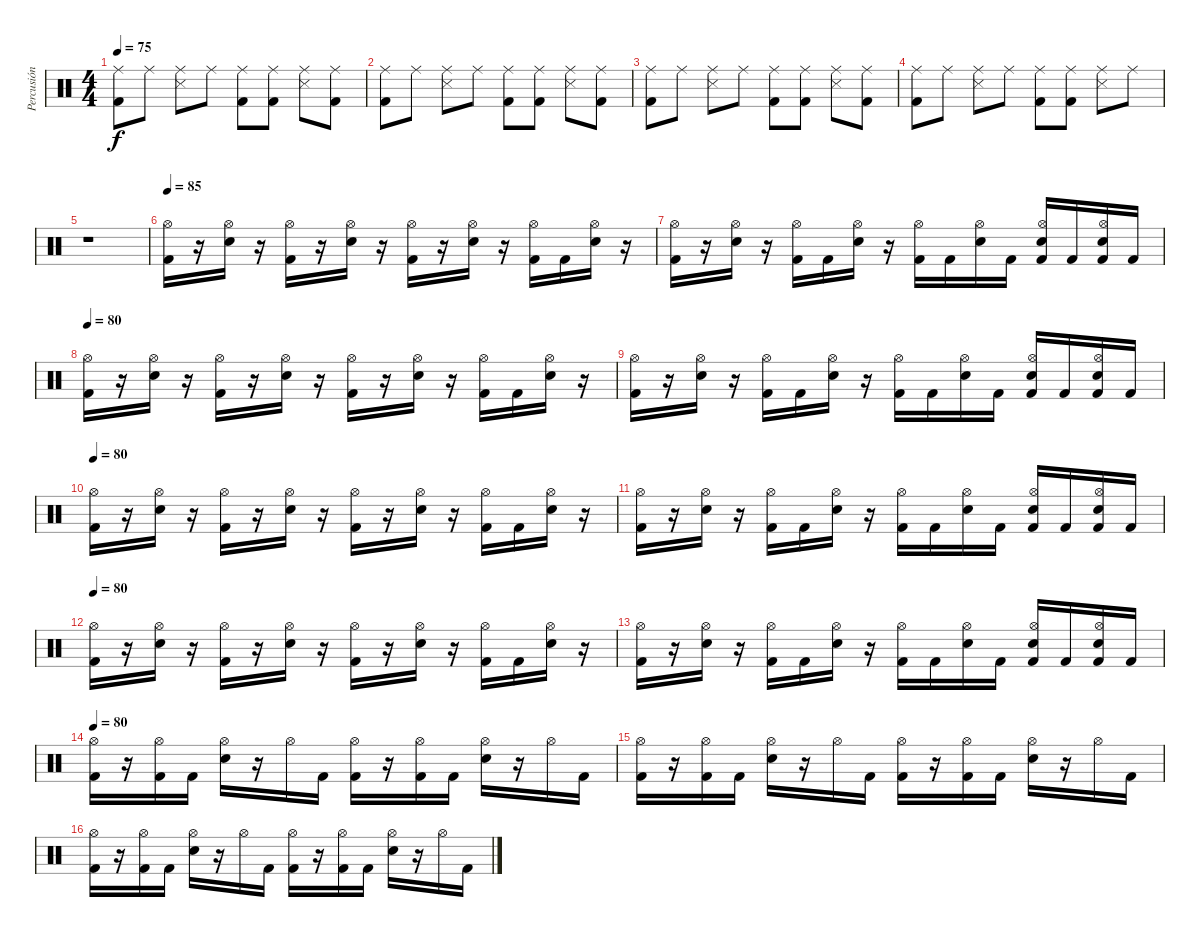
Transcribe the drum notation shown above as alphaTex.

\track ("Percusión" "Percusión") {instrument percussion}
\staff {score}
\articulation defaults
\ts (4 4)
\tempo 75
\clef neutral
\ks c
("Kick (hit) 2" "Ride (middle)").8{dy f} "Ride (middle)".8 ("Ride (middle)" "Snare (side stick) 3").8 "Ride (middle)".8 ("Kick (hit) 2" "Ride (middle)").8 ("Kick (hit) 2" "Ride (middle)").8 ("Ride (middle)" "Snare (side stick) 3").8 ("Kick (hit) 2" "Ride (middle)").8 |
("Kick (hit) 2" "Ride (middle)").8 "Ride (middle)".8 ("Ride (middle)" "Snare (side stick) 3").8 "Ride (middle)".8 ("Kick (hit) 2" "Ride (middle)").8 ("Kick (hit) 2" "Ride (middle)").8 ("Ride (middle)" "Snare (side stick) 3").8 ("Kick (hit) 2" "Ride (middle)").8 |
("Kick (hit) 2" "Ride (middle)").8 "Ride (middle)".8 ("Ride (middle)" "Snare (side stick) 3").8 "Ride (middle)".8 ("Kick (hit) 2" "Ride (middle)").8 ("Kick (hit) 2" "Ride (middle)").8 ("Ride (middle)" "Snare (side stick) 3").8 ("Kick (hit) 2" "Ride (middle)").8 |
("Kick (hit) 2" "Ride (middle)").8 "Ride (middle)".8 ("Ride (middle)" "Snare (side stick) 3").8 "Ride (middle)".8 ("Kick (hit) 2" "Ride (middle)").8 ("Kick (hit) 2" "Ride (middle)").8 ("Ride (middle)" "Snare (side stick) 3").8 "Ride (middle)".8 |
r.1 |
\tempo 85
("Kick (hit) 2" "Hi-Hat (open)").16{volume 16} r.16 ("Electric Snare (hit)" "Hi-Hat (open)").16 r.16 ("Kick (hit) 2" "Hi-Hat (open)").16 r.16 ("Electric Snare (hit)" "Hi-Hat (open)").16 r.16 ("Kick (hit) 2" "Hi-Hat (open)").16 r.16 ("Electric Snare (hit)" "Hi-Hat (open)").16 r.16 ("Kick (hit) 2" "Hi-Hat (open)").16 "Kick (hit) 2".16 ("Electric Snare (hit)" "Hi-Hat (open)").16 r.16 |
("Kick (hit) 2" "Hi-Hat (open)").16 r.16 ("Electric Snare (hit)" "Hi-Hat (open)").16 r.16 ("Kick (hit) 2" "Hi-Hat (open)").16 "Kick (hit) 2".16 ("Electric Snare (hit)" "Hi-Hat (open)").16 r.16 ("Kick (hit) 2" "Hi-Hat (open)").16 "Kick (hit) 2".16 ("Electric Snare (hit)" "Hi-Hat (open)").16 "Kick (hit) 2".16 ("Kick (hit) 2" "Electric Snare (hit)" "Hi-Hat (open)").16 "Kick (hit) 2".16 ("Kick (hit) 2" "Electric Snare (hit)" "Hi-Hat (open)").16 "Kick (hit) 2".16 |
\tempo 80
("Kick (hit) 2" "Hi-Hat (open)").16 r.16 ("Electric Snare (hit)" "Hi-Hat (open)").16 r.16 ("Kick (hit) 2" "Hi-Hat (open)").16 r.16 ("Electric Snare (hit)" "Hi-Hat (open)").16 r.16 ("Kick (hit) 2" "Hi-Hat (open)").16 r.16 ("Electric Snare (hit)" "Hi-Hat (open)").16 r.16 ("Kick (hit) 2" "Hi-Hat (open)").16 "Kick (hit) 2".16 ("Electric Snare (hit)" "Hi-Hat (open)").16 r.16 |
("Kick (hit) 2" "Hi-Hat (open)").16 r.16 ("Electric Snare (hit)" "Hi-Hat (open)").16 r.16 ("Kick (hit) 2" "Hi-Hat (open)").16 "Kick (hit) 2".16 ("Electric Snare (hit)" "Hi-Hat (open)").16 r.16 ("Kick (hit) 2" "Hi-Hat (open)").16 "Kick (hit) 2".16 ("Electric Snare (hit)" "Hi-Hat (open)").16 "Kick (hit) 2".16 ("Kick (hit) 2" "Electric Snare (hit)" "Hi-Hat (open)").16 "Kick (hit) 2".16 ("Kick (hit) 2" "Electric Snare (hit)" "Hi-Hat (open)").16 "Kick (hit) 2".16 |
\tempo 80
("Kick (hit) 2" "Hi-Hat (open)").16 r.16 ("Electric Snare (hit)" "Hi-Hat (open)").16 r.16 ("Kick (hit) 2" "Hi-Hat (open)").16 r.16 ("Electric Snare (hit)" "Hi-Hat (open)").16 r.16 ("Kick (hit) 2" "Hi-Hat (open)").16 r.16 ("Electric Snare (hit)" "Hi-Hat (open)").16 r.16 ("Kick (hit) 2" "Hi-Hat (open)").16 "Kick (hit) 2".16 ("Electric Snare (hit)" "Hi-Hat (open)").16 r.16 |
("Kick (hit) 2" "Hi-Hat (open)").16 r.16 ("Electric Snare (hit)" "Hi-Hat (open)").16 r.16 ("Kick (hit) 2" "Hi-Hat (open)").16 "Kick (hit) 2".16 ("Electric Snare (hit)" "Hi-Hat (open)").16 r.16 ("Kick (hit) 2" "Hi-Hat (open)").16 "Kick (hit) 2".16 ("Electric Snare (hit)" "Hi-Hat (open)").16 "Kick (hit) 2".16 ("Kick (hit) 2" "Electric Snare (hit)" "Hi-Hat (open)").16 "Kick (hit) 2".16 ("Kick (hit) 2" "Electric Snare (hit)" "Hi-Hat (open)").16 "Kick (hit) 2".16 |
\tempo 80
("Kick (hit) 2" "Hi-Hat (open)").16 r.16 ("Electric Snare (hit)" "Hi-Hat (open)").16 r.16 ("Kick (hit) 2" "Hi-Hat (open)").16 r.16 ("Electric Snare (hit)" "Hi-Hat (open)").16 r.16 ("Kick (hit) 2" "Hi-Hat (open)").16 r.16 ("Electric Snare (hit)" "Hi-Hat (open)").16 r.16 ("Kick (hit) 2" "Hi-Hat (open)").16 "Kick (hit) 2".16 ("Electric Snare (hit)" "Hi-Hat (open)").16 r.16 |
("Kick (hit) 2" "Hi-Hat (open)").16 r.16 ("Electric Snare (hit)" "Hi-Hat (open)").16 r.16 ("Kick (hit) 2" "Hi-Hat (open)").16 "Kick (hit) 2".16 ("Electric Snare (hit)" "Hi-Hat (open)").16 r.16 ("Kick (hit) 2" "Hi-Hat (open)").16 "Kick (hit) 2".16 ("Electric Snare (hit)" "Hi-Hat (open)").16 "Kick (hit) 2".16 ("Kick (hit) 2" "Electric Snare (hit)" "Hi-Hat (open)").16 "Kick (hit) 2".16 ("Kick (hit) 2" "Electric Snare (hit)" "Hi-Hat (open)").16 "Kick (hit) 2".16 |
\tempo 80
("Kick (hit) 2" "Hi-Hat (open)").16 r.16 ("Kick (hit) 2" "Hi-Hat (open)").16 "Kick (hit) 2".16 ("Electric Snare (hit)" "Hi-Hat (open)").16 r.16 "Hi-Hat (open)".16 "Kick (hit) 2".16 ("Kick (hit) 2" "Hi-Hat (open)").16 r.16 ("Kick (hit) 2" "Hi-Hat (open)").16 "Kick (hit) 2".16 ("Electric Snare (hit)" "Hi-Hat (open)").16 r.16 "Hi-Hat (open)".16 "Kick (hit) 2".16 |
("Kick (hit) 2" "Hi-Hat (open)").16 r.16 ("Kick (hit) 2" "Hi-Hat (open)").16 "Kick (hit) 2".16 ("Electric Snare (hit)" "Hi-Hat (open)").16 r.16 "Hi-Hat (open)".16 "Kick (hit) 2".16 ("Kick (hit) 2" "Hi-Hat (open)").16 r.16 ("Kick (hit) 2" "Hi-Hat (open)").16 "Kick (hit) 2".16 ("Electric Snare (hit)" "Hi-Hat (open)").16 r.16 "Hi-Hat (open)".16 "Kick (hit) 2".16 |
("Kick (hit) 2" "Hi-Hat (open)").16 r.16 ("Kick (hit) 2" "Hi-Hat (open)").16 "Kick (hit) 2".16 ("Electric Snare (hit)" "Hi-Hat (open)").16 r.16 "Hi-Hat (open)".16 "Kick (hit) 2".16 ("Kick (hit) 2" "Hi-Hat (open)").16 r.16 ("Kick (hit) 2" "Hi-Hat (open)").16 "Kick (hit) 2".16 ("Electric Snare (hit)" "Hi-Hat (open)").16 r.16 "Hi-Hat (open)".16 "Kick (hit) 2".16
